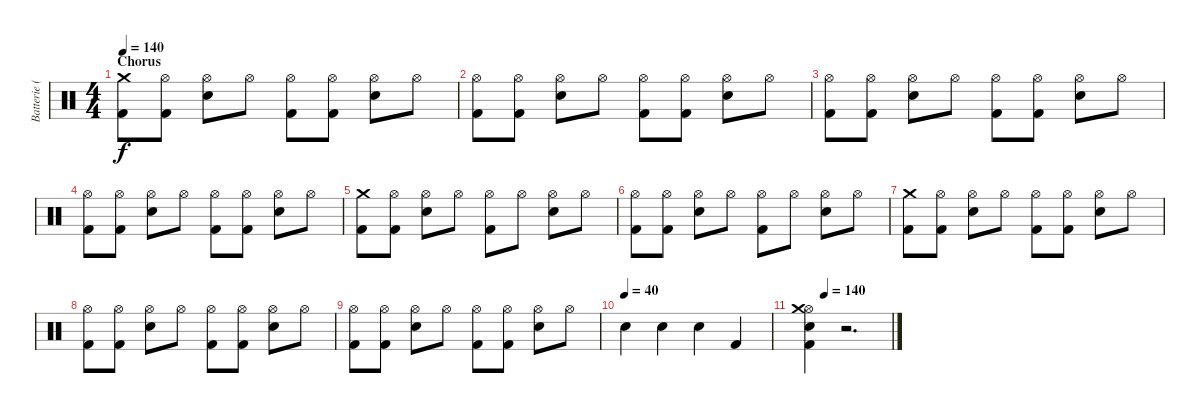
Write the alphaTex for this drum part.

\track ("Batterie (Dave)" "Batterie (") {instrument percussion}
\staff {score}
\articulation defaults
\ts (4 4)
\section ("" "Chorus")
\tempo 140
\clef neutral
\ks c
("Crash medium (hit)" "Kick (hit) 2").8{dy f} ("Hi-Hat (open)" "Kick (hit) 2").8 ("Hi-Hat (open)" "Snare (hit) 2").8 "Hi-Hat (open)".8 ("Hi-Hat (open)" "Kick (hit) 2").8 ("Hi-Hat (open)" "Kick (hit) 2").8 ("Hi-Hat (open)" "Snare (hit) 2").8 "Hi-Hat (open)".8 |
("Hi-Hat (open)" "Kick (hit) 2").8 ("Hi-Hat (open)" "Kick (hit) 2").8 ("Hi-Hat (open)" "Snare (hit) 2").8 "Hi-Hat (open)".8 ("Hi-Hat (open)" "Kick (hit) 2").8 ("Hi-Hat (open)" "Kick (hit) 2").8 ("Hi-Hat (open)" "Snare (hit) 2").8 "Hi-Hat (open)".8 |
("Hi-Hat (open)" "Kick (hit) 2").8 ("Hi-Hat (open)" "Kick (hit) 2").8 ("Hi-Hat (open)" "Snare (hit) 2").8 "Hi-Hat (open)".8 ("Hi-Hat (open)" "Kick (hit) 2").8 ("Hi-Hat (open)" "Kick (hit) 2").8 ("Hi-Hat (open)" "Snare (hit) 2").8 "Hi-Hat (open)".8 |
("Hi-Hat (open)" "Kick (hit) 2").8 ("Hi-Hat (open)" "Kick (hit) 2").8 ("Hi-Hat (open)" "Snare (hit) 2").8 "Hi-Hat (open)".8 ("Hi-Hat (open)" "Kick (hit) 2").8 ("Hi-Hat (open)" "Kick (hit) 2").8 ("Hi-Hat (open)" "Snare (hit) 2").8 "Hi-Hat (open)".8 |
("Crash medium (hit)" "Kick (hit) 2").8 ("Hi-Hat (open)" "Kick (hit) 2").8 ("Hi-Hat (open)" "Snare (hit) 2").8 "Hi-Hat (open)".8 ("Hi-Hat (open)" "Kick (hit) 2").8 "Hi-Hat (open)".8 ("Hi-Hat (open)" "Snare (hit) 2").8 "Hi-Hat (open)".8 |
("Hi-Hat (open)" "Kick (hit) 2").8 ("Hi-Hat (open)" "Kick (hit) 2").8 ("Hi-Hat (open)" "Snare (hit) 2").8 "Hi-Hat (open)".8 ("Hi-Hat (open)" "Kick (hit) 2").8 "Hi-Hat (open)".8 ("Hi-Hat (open)" "Snare (hit) 2").8 "Hi-Hat (open)".8 |
("Crash medium (hit)" "Kick (hit) 2").8 ("Hi-Hat (open)" "Kick (hit) 2").8 ("Hi-Hat (open)" "Snare (hit) 2").8 "Hi-Hat (open)".8 ("Hi-Hat (open)" "Kick (hit) 2").8 ("Hi-Hat (open)" "Kick (hit) 2").8 ("Hi-Hat (open)" "Snare (hit) 2").8 "Hi-Hat (open)".8 |
("Hi-Hat (open)" "Kick (hit) 2").8 ("Hi-Hat (open)" "Kick (hit) 2").8 ("Hi-Hat (open)" "Snare (hit) 2").8 "Hi-Hat (open)".8 ("Hi-Hat (open)" "Kick (hit) 2").8 ("Hi-Hat (open)" "Kick (hit) 2").8 ("Hi-Hat (open)" "Snare (hit) 2").8 "Hi-Hat (open)".8 |
("Hi-Hat (open)" "Kick (hit) 2").8 ("Hi-Hat (open)" "Kick (hit) 2").8 ("Hi-Hat (open)" "Snare (hit) 2").8 "Hi-Hat (open)".8 ("Hi-Hat (open)" "Kick (hit) 2").8 ("Hi-Hat (open)" "Kick (hit) 2").8 ("Hi-Hat (open)" "Snare (hit) 2").8 "Hi-Hat (open)".8 |
\tempo (40)
"Snare (hit) 2".4 "Snare (hit) 2".4 "Electric Snare (hit)".4 "Kick (hit) 2".4 |
\tempo (140 0.25)
("Hi-Hat (open)" "Crash medium (hit)" "Snare (hit) 2" "Kick (hit) 2").4 r.2{d}
